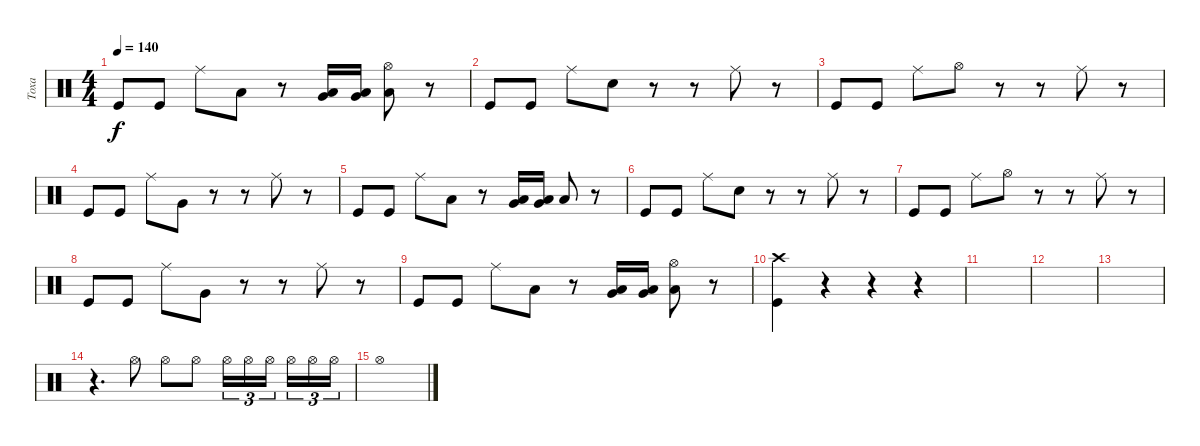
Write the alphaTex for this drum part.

\track ("Тоха" "Тоха") {instrument percussion}
\staff {score}
\articulation defaults
\ts (4 4)
\tempo 140
\clef neutral
\ks c "Kick (hit)".8{dy f} "Kick (hit)".8 "Ride (middle)".8 "Low Floor Tom (hit)".8
r.8 ("Low Floor Tom (hit)" "Very Low Tom (hit)").16 ("Low Floor Tom (hit)" "Very Low Tom (hit)").16 ("Low Floor Tom (hit)" "Hi-Hat (open)").8 r.8 |
"Kick (hit)".8 "Kick (hit)".8 "Ride (middle)".8 "Snare (hit) 2".8 r.8 r.8 "Ride (middle)".8 r.8 |
"Kick (hit)".8 "Kick (hit)".8 "Ride (middle)".8 "Hi-Hat (open)".8 r.8 r.8 "Ride (middle)".8 r.8 |
"Kick (hit)".8 "Kick (hit)".8 "Ride (middle)".8 "Very Low Tom (hit)".8 r.8 r.8 "Ride (middle)".8 r.8 |
"Kick (hit)".8 "Kick (hit)".8 "Ride (middle)".8 "Low Floor Tom (hit)".8 r.8 ("Low Floor Tom (hit)" "Very Low Tom (hit)").16 ("Low Floor Tom (hit)" "Very Low Tom (hit)").16 "Low Floor Tom (hit)".8 r.8 |
"Kick (hit)".8 "Kick (hit)".8 "Ride (middle)".8 "Snare (hit) 2".8 r.8 r.8 "Ride (middle)".8 r.8 |
"Kick (hit)".8 "Kick (hit)".8 "Ride (middle)".8 "Hi-Hat (open)".8 r.8 r.8 "Ride (middle)".8 r.8 |
"Kick (hit)".8 "Kick (hit)".8 "Ride (middle)".8 "Very Low Tom (hit)".8 r.8 r.8 "Ride (middle)".8 r.8 |
"Kick (hit)".8 "Kick (hit)".8 "Ride (middle)".8 "Low Floor Tom (hit)".8 r.8 ("Low Floor Tom (hit)" "Very Low Tom (hit)").16 ("Low Floor Tom (hit)" "Very Low Tom (hit)").16 ("Low Floor Tom (hit)" "Hi-Hat (open)").8 r.8 |
("Kick (hit)" "Crash high (hit)").4 r.4 r.4 r.4 |
|
|
|
r.4{d} "Hi-Hat (open)".8 "Hi-Hat (open)".8 "Hi-Hat (open)".8 "Hi-Hat (open)".16{tu (3 2)} "Hi-Hat (open)".16{tu (3 2)} "Hi-Hat (open)".16{tu (3 2) beam splitsecondary} "Hi-Hat (open)".16{tu (3 2)} "Hi-Hat (open)".16{tu (3 2)} "Hi-Hat (open)".16{tu (3 2)} |
"Hi-Hat (open)".1
